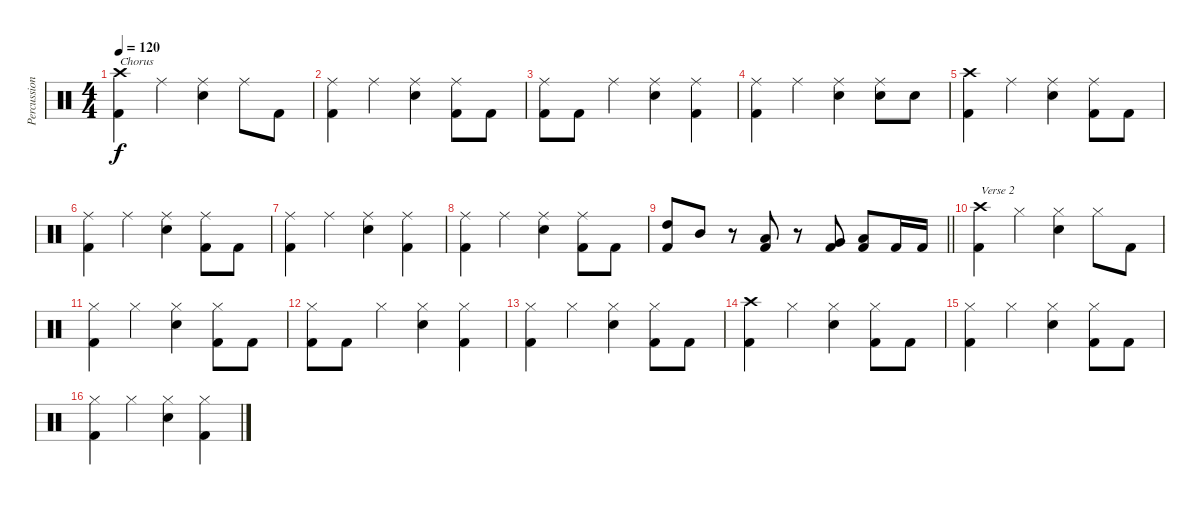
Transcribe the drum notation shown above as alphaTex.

\track ("Percussion" "Percussion") {instrument percussion}
\staff {score}
\articulation defaults
\ts (4 4)
\tempo 120
\clef neutral
\ks c
("Kick (hit) 2" "Crash high (hit)").4{txt "Chorus" dy f} "Ride (middle)".4 ("Snare (hit) 2" "Ride (middle)").4 "Ride (middle)".8 "Kick (hit) 2".8 |
("Kick (hit) 2" "Ride (middle)").4 "Ride (middle)".4 ("Snare (hit) 2" "Ride (middle)").4 ("Kick (hit) 2" "Ride (middle)").8 "Kick (hit) 2".8 |
("Kick (hit) 2" "Ride (middle)").8 "Kick (hit) 2".8 "Ride (middle)".4 ("Snare (hit) 2" "Ride (middle)").4 ("Kick (hit) 2" "Ride (middle)").4 |
("Kick (hit) 2" "Ride (middle)").4 "Ride (middle)".4 ("Snare (hit) 2" "Ride (middle)").4 ("Snare (hit) 2" "Ride (middle)").8 "Snare (hit) 2".8 |
("Kick (hit) 2" "Crash high (hit)").4 "Ride (middle)".4 ("Snare (hit) 2" "Ride (middle)").4 ("Kick (hit) 2" "Ride (middle)").8 "Kick (hit) 2".8 |
("Kick (hit) 2" "Ride (middle)").4 "Ride (middle)".4 ("Snare (hit) 2" "Ride (middle)").4 ("Kick (hit) 2" "Ride (middle)").8 "Kick (hit) 2".8 |
("Kick (hit) 2" "Ride (middle)").4 "Ride (middle)".4 ("Snare (hit) 2" "Ride (middle)").4 ("Kick (hit) 2" "Ride (middle)").4 |
("Kick (hit) 2" "Ride (middle)").4 "Ride (middle)".4 ("Snare (hit) 2" "Ride (middle)").4 ("Kick (hit) 2" "Ride (middle)").8 "Kick (hit) 2".8 |
\barLineRight lightlight
("High Tom (hit)" "Kick (hit) 2").8 "Mid Tom (hit)".8 r.8 ("Low Tom (hit)" "Kick (hit) 2").8 r.8 ("Very Low Tom (hit)" "Kick (hit) 2").8 ("Low Floor Tom (hit)" "Kick (hit) 2").8 "Kick (hit) 2".16 "Kick (hit) 2".16 |
("Kick (hit) 2" "Crash high (hit)").4{txt "Verse 2"} "Hi-Hat (closed)".4 ("Snare (hit) 2" "Hi-Hat (closed)").4 "Hi-Hat (closed)".8 "Kick (hit) 2".8 |
("Kick (hit) 2" "Hi-Hat (closed)").4 "Hi-Hat (closed)".4 ("Snare (hit) 2" "Hi-Hat (closed)").4 ("Kick (hit) 2" "Hi-Hat (closed)").8 "Kick (hit) 2".8 |
("Kick (hit) 2" "Hi-Hat (closed)").8 "Kick (hit) 2".8 "Hi-Hat (closed)".4 ("Snare (hit) 2" "Hi-Hat (closed)").4 ("Kick (hit) 2" "Hi-Hat (closed)").4 |
("Kick (hit) 2" "Hi-Hat (closed)").4 "Hi-Hat (closed)".4 ("Snare (hit) 2" "Hi-Hat (closed)").4 ("Kick (hit) 2" "Hi-Hat (closed)").8 "Kick (hit) 2".8 |
("Kick (hit) 2" "Crash high (hit)").4 "Hi-Hat (closed)".4 ("Snare (hit) 2" "Hi-Hat (closed)").4 ("Kick (hit) 2" "Hi-Hat (closed)").8 "Kick (hit) 2".8 |
("Kick (hit) 2" "Hi-Hat (closed)").4 "Hi-Hat (closed)".4 ("Snare (hit) 2" "Hi-Hat (closed)").4 ("Kick (hit) 2" "Hi-Hat (closed)").8 "Kick (hit) 2".8 |
("Kick (hit) 2" "Hi-Hat (closed)").4 "Hi-Hat (closed)".4 ("Snare (hit) 2" "Hi-Hat (closed)").4 ("Kick (hit) 2" "Hi-Hat (closed)").4
